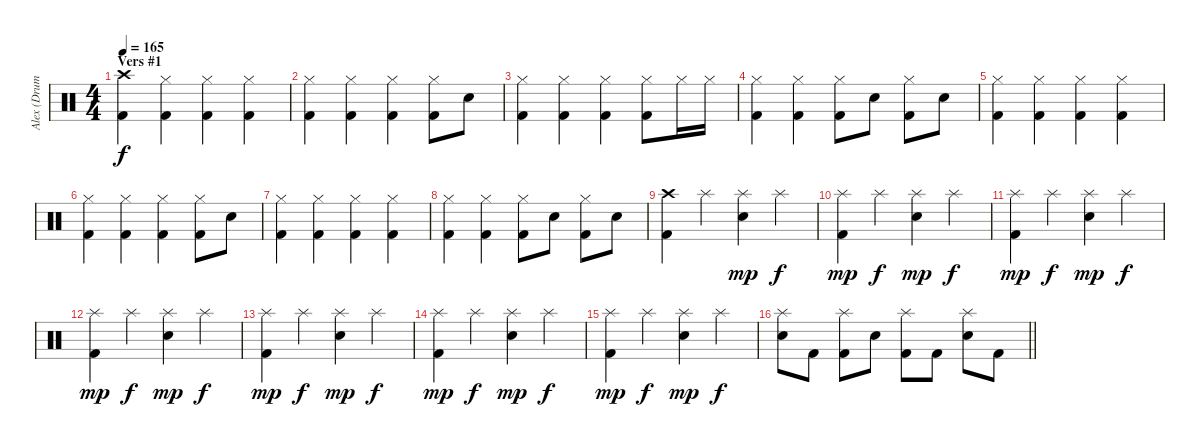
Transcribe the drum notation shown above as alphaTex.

\track ("Alex (Drums)" "Alex (Drum") {instrument percussion}
\staff {score}
\articulation defaults
\ts (4 4)
\section ("" "Vers #1")
\tempo 165
\clef neutral
\ks c
("Crash high (hit)" "Kick (hit) 2").4{dy f} ("Hi-Hat (closed)" "Kick (hit) 2").4 ("Hi-Hat (closed)" "Kick (hit) 2").4 ("Hi-Hat (closed)" "Kick (hit) 2").4 |
("Hi-Hat (closed)" "Kick (hit) 2").4 ("Hi-Hat (closed)" "Kick (hit) 2").4 ("Hi-Hat (closed)" "Kick (hit) 2").4 ("Hi-Hat (closed)" "Kick (hit) 2").8 "Snare (hit) 2".8 |
("Hi-Hat (closed)" "Kick (hit) 2").4 ("Hi-Hat (closed)" "Kick (hit) 2").4 ("Hi-Hat (closed)" "Kick (hit) 2").4 ("Hi-Hat (closed)" "Kick (hit) 2").8 "Hi-Hat (closed)".16 "Hi-Hat (closed)".16 |
("Hi-Hat (closed)" "Kick (hit) 2").4 ("Hi-Hat (closed)" "Kick (hit) 2").4 ("Hi-Hat (closed)" "Kick (hit) 2").8 "Snare (hit) 2".8 ("Hi-Hat (closed)" "Kick (hit) 2").8 "Snare (hit) 2".8 |
("Hi-Hat (closed)" "Kick (hit) 2").4 ("Hi-Hat (closed)" "Kick (hit) 2").4 ("Hi-Hat (closed)" "Kick (hit) 2").4 ("Hi-Hat (closed)" "Kick (hit) 2").4 |
("Hi-Hat (closed)" "Kick (hit) 2").4 ("Hi-Hat (closed)" "Kick (hit) 2").4 ("Hi-Hat (closed)" "Kick (hit) 2").4 ("Hi-Hat (closed)" "Kick (hit) 2").8 "Snare (hit) 2".8 |
("Hi-Hat (closed)" "Kick (hit) 2").4 ("Hi-Hat (closed)" "Kick (hit) 2").4 ("Hi-Hat (closed)" "Kick (hit) 2").4 ("Hi-Hat (closed)" "Kick (hit) 2").4 |
("Hi-Hat (closed)" "Kick (hit) 2").4 ("Hi-Hat (closed)" "Kick (hit) 2").4 ("Hi-Hat (closed)" "Kick (hit) 2").8 "Snare (hit) 2".8 ("Hi-Hat (closed)" "Kick (hit) 2").8 "Snare (hit) 2".8 |
("Crash high (hit)" "Kick (hit) 2").4 "Splash (hit)".4 ("Splash (hit)" "Snare (hit) 2").4{dy mp} "Splash (hit)".4{dy f} |
("Splash (hit)" "Kick (hit) 2").4{dy mp} "Splash (hit)".4{dy f} ("Splash (hit)" "Snare (hit) 2").4{dy mp} "Splash (hit)".4{dy f} |
("Splash (hit)" "Kick (hit) 2").4{dy mp} "Splash (hit)".4{dy f} ("Splash (hit)" "Snare (hit) 2").4{dy mp} "Splash (hit)".4{dy f} |
("Splash (hit)" "Kick (hit) 2").4{dy mp} "Splash (hit)".4{dy f} ("Splash (hit)" "Snare (hit) 2").4{dy mp} "Splash (hit)".4{dy f} |
("Splash (hit)" "Kick (hit) 2").4{dy mp} "Splash (hit)".4{dy f} ("Splash (hit)" "Snare (hit) 2").4{dy mp} "Splash (hit)".4{dy f} |
("Splash (hit)" "Kick (hit) 2").4{dy mp} "Splash (hit)".4{dy f} ("Splash (hit)" "Snare (hit) 2").4{dy mp} "Splash (hit)".4{dy f} |
("Splash (hit)" "Kick (hit) 2").4{dy mp} "Splash (hit)".4{dy f} ("Splash (hit)" "Snare (hit) 2").4{dy mp} "Splash (hit)".4{dy f} |
\barLineRight lightlight
("Splash (hit)" "Snare (hit) 2").8 "Kick (hit) 2".8 ("Splash (hit)" "Kick (hit) 2").8 "Snare (hit) 2".8 ("Splash (hit)" "Kick (hit) 2").8 "Kick (hit) 2".8 ("Splash (hit)" "Snare (hit) 2").8 "Kick (hit) 2".8
